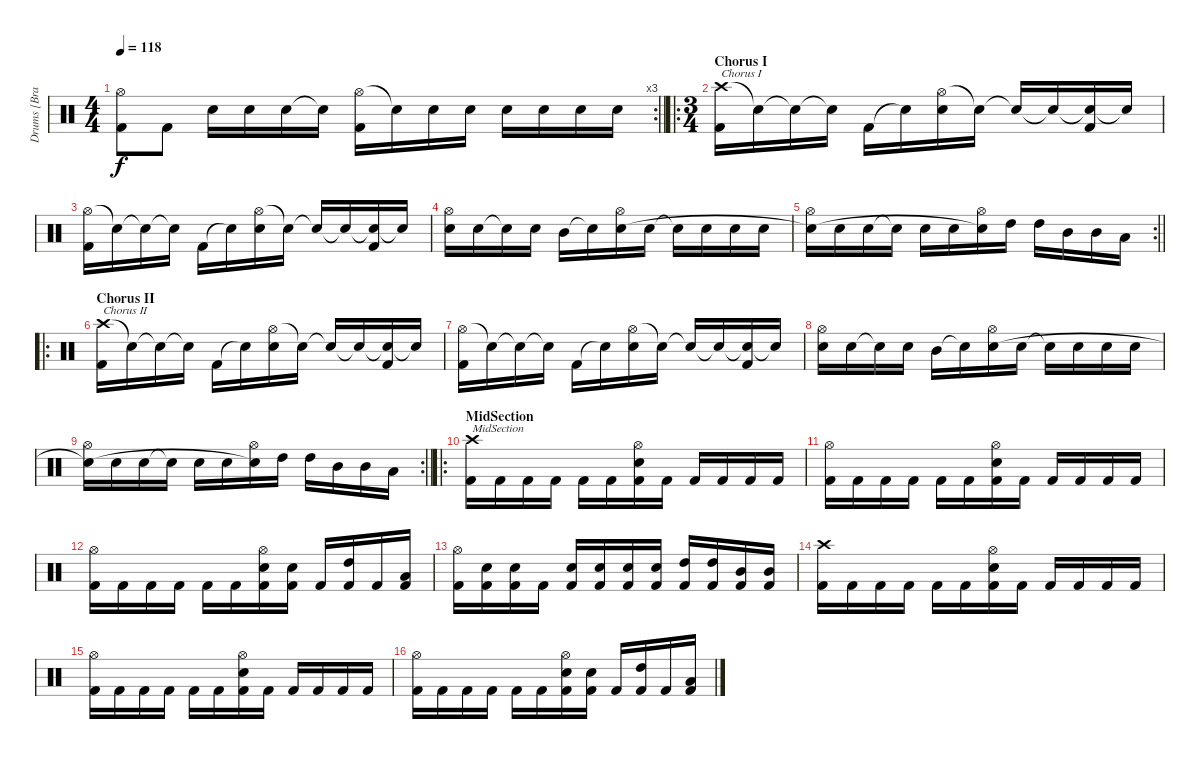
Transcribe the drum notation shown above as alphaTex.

\track ("Drums [Brann Dailor]" "Drums [Bra") {instrument percussion}
\staff {score}
\articulation defaults
\rc 3
\ts (4 4)
\tempo 118
\clef neutral
\barLineRight lightlight
\ks c
("Hi-Hat (open)" "Kick (hit) 2").8{dy f} "Kick (hit) 2".8 "Electric Snare (hit)".16 "Electric Snare (hit)".16 "Electric Snare (hit)".16 "Snare (hit)"{t}.16 ("Hi-Hat (open)" "Kick (hit) 2").16 "Snare (hit)"{t}.16 "Electric Snare (hit)".16 "Electric Snare (hit)".16 "Electric Snare (hit)".16 "Electric Snare (hit)".16 "Electric Snare (hit)".16 "Electric Snare (hit)".16 |
\ro
\ts (3 4)
\section ("" "Chorus I")
("Crash high (hit)" "Kick (hit) 2").16{txt "Chorus I"} "Snare (hit)"{t}.16 "Snare (hit)"{t}.16 "Snare (hit)"{t}.16 "Kick (hit) 2".16 "Snare (hit)"{t}.16 ("Hi-Hat (open)" "Electric Snare (hit)").16 "Snare (hit)"{t}.16 "Snare (hit)"{t}.16 "Snare (hit)"{t}.16 ("Snare (hit)"{t} "Kick (hit) 2").16 "Snare (hit)"{t}.16 |
("Hi-Hat (open)" "Kick (hit) 2").16 "Snare (hit)"{t}.16 "Snare (hit)"{t}.16 "Snare (hit)"{t}.16 "Kick (hit) 2".16 "Snare (hit)"{t}.16 ("Hi-Hat (open)" "Electric Snare (hit)").16 "Snare (hit)"{t}.16 "Snare (hit)"{t}.16 "Snare (hit)"{t}.16 ("Snare (hit)"{t} "Kick (hit) 2").16 "Snare (hit)"{t}.16 |
("Hi-Hat (open)" "Electric Snare (hit)").16 "Electric Snare (hit)".16 "Snare (hit)"{t}.16 "Snare (hit)".16 "Mid Tom (hit)".16 "Snare (hit)"{t}.16 ("Hi-Hat (open)" "Electric Snare (hit)").16 "Electric Snare (hit)".16 "Snare (hit)"{t}.16 "Electric Snare (hit)".16 "Electric Snare (hit)".16 "Electric Snare (hit)".16 |
\rc 2
\barLineRight lightlight
("Hi-Hat (open)" "Snare (hit)"{t}).16 "Electric Snare (hit)".16 "Electric Snare (hit)".16 "Snare (hit)"{t}.16 "Electric Snare (hit)".16 "Electric Snare (hit)".16 ("Hi-Hat (open)" "Snare (hit)"{t}).16 "High Tom (hit)".16 "High Tom (hit)".16 "Mid Tom (hit)".16 "Mid Tom (hit)".16 "Low Tom (hit)".16 |
\ro
\section ("" "Chorus II")
("Crash high (hit)" "Kick (hit) 2").16{txt "Chorus II"} "Snare (hit)"{t}.16 "Snare (hit)"{t}.16 "Snare (hit)"{t}.16 "Kick (hit) 2".16 "Snare (hit)"{t}.16 ("Hi-Hat (open)" "Electric Snare (hit)").16 "Snare (hit)"{t}.16 "Snare (hit)"{t}.16 "Snare (hit)"{t}.16 ("Snare (hit)"{t} "Kick (hit) 2").16 "Snare (hit)"{t}.16 |
("Hi-Hat (open)" "Kick (hit) 2").16 "Snare (hit)"{t}.16 "Snare (hit)"{t}.16 "Snare (hit)"{t}.16 "Kick (hit) 2".16 "Snare (hit)"{t}.16 ("Hi-Hat (open)" "Electric Snare (hit)").16 "Snare (hit)"{t}.16 "Snare (hit)"{t}.16 "Snare (hit)"{t}.16 ("Snare (hit)"{t} "Kick (hit) 2").16 "Snare (hit)"{t}.16 |
("Hi-Hat (open)" "Electric Snare (hit)").16 "Electric Snare (hit)".16 "Snare (hit)"{t}.16 "Snare (hit)".16 "Mid Tom (hit)".16 "Snare (hit)"{t}.16 ("Hi-Hat (open)" "Electric Snare (hit)").16 "Electric Snare (hit)".16 "Snare (hit)"{t}.16 "Electric Snare (hit)".16 "Electric Snare (hit)".16 "Electric Snare (hit)".16 |
\rc 2
\barLineRight lightlight
("Hi-Hat (open)" "Snare (hit)"{t}).16 "Electric Snare (hit)".16 "Electric Snare (hit)".16 "Snare (hit)"{t}.16 "Electric Snare (hit)".16 "Electric Snare (hit)".16 ("Hi-Hat (open)" "Snare (hit)"{t}).16 "High Tom (hit)".16 "High Tom (hit)".16 "Mid Tom (hit)".16 "Mid Tom (hit)".16 "Low Tom (hit)".16 |
\ro
\section ("" "MidSection")
("Crash high (hit)" "Kick (hit) 2").16{txt "MidSection"} "Kick (hit) 2".16 "Kick (hit) 2".16 "Kick (hit) 2".16 "Kick (hit) 2".16 "Kick (hit) 2".16 ("Hi-Hat (open)" "Electric Snare (hit)" "Kick (hit) 2").16 "Kick (hit) 2".16 "Kick (hit) 2".16 "Kick (hit) 2".16 "Kick (hit) 2".16 "Kick (hit) 2".16 |
("Hi-Hat (open)" "Kick (hit) 2").16 "Kick (hit) 2".16 "Kick (hit) 2".16 "Kick (hit) 2".16 "Kick (hit) 2".16 "Kick (hit) 2".16 ("Hi-Hat (open)" "Electric Snare (hit)" "Kick (hit) 2").16 "Kick (hit) 2".16 "Kick (hit) 2".16 "Kick (hit) 2".16 "Kick (hit) 2".16 "Kick (hit) 2".16 |
("Hi-Hat (open)" "Kick (hit) 2").16 "Kick (hit) 2".16 "Kick (hit) 2".16 "Kick (hit) 2".16 "Kick (hit) 2".16 "Kick (hit) 2".16 ("Hi-Hat (open)" "Electric Snare (hit)" "Kick (hit) 2").16 ("Electric Snare (hit)" "Kick (hit) 2").16 "Kick (hit) 2".16 ("High Tom (hit)" "Kick (hit) 2").16 "Kick (hit) 2".16 ("Low Tom (hit)" "Kick (hit) 2").16 |
("Hi-Hat (open)" "Kick (hit) 2").16 ("Electric Snare (hit)" "Kick (hit) 2").16 ("Electric Snare (hit)" "Kick (hit) 2").16 "Kick (hit) 2".16 ("Electric Snare (hit)" "Kick (hit) 2").16 ("Electric Snare (hit)" "Kick (hit) 2").16 ("Electric Snare (hit)" "Kick (hit) 2").16 ("Electric Snare (hit)" "Kick (hit) 2").16 ("High Tom (hit)" "Kick (hit) 2").16 ("High Tom (hit)" "Kick (hit) 2").16 ("Mid Tom (hit)" "Kick (hit) 2").16 ("Mid Tom (hit)" "Kick (hit) 2").16 |
("Crash high (hit)" "Kick (hit) 2").16 "Kick (hit) 2".16 "Kick (hit) 2".16 "Kick (hit) 2".16 "Kick (hit) 2".16 "Kick (hit) 2".16 ("Hi-Hat (open)" "Electric Snare (hit)" "Kick (hit) 2").16 "Kick (hit) 2".16 "Kick (hit) 2".16 "Kick (hit) 2".16 "Kick (hit) 2".16 "Kick (hit) 2".16 |
("Hi-Hat (open)" "Kick (hit) 2").16 "Kick (hit) 2".16 "Kick (hit) 2".16 "Kick (hit) 2".16 "Kick (hit) 2".16 "Kick (hit) 2".16 ("Hi-Hat (open)" "Electric Snare (hit)" "Kick (hit) 2").16 "Kick (hit) 2".16 "Kick (hit) 2".16 "Kick (hit) 2".16 "Kick (hit) 2".16 "Kick (hit) 2".16 |
("Hi-Hat (open)" "Kick (hit) 2").16 "Kick (hit) 2".16 "Kick (hit) 2".16 "Kick (hit) 2".16 "Kick (hit) 2".16 "Kick (hit) 2".16 ("Hi-Hat (open)" "Electric Snare (hit)" "Kick (hit) 2").16 ("Electric Snare (hit)" "Kick (hit) 2").16 "Kick (hit) 2".16 ("High Tom (hit)" "Kick (hit) 2").16 "Kick (hit) 2".16 ("Low Tom (hit)" "Kick (hit) 2").16
